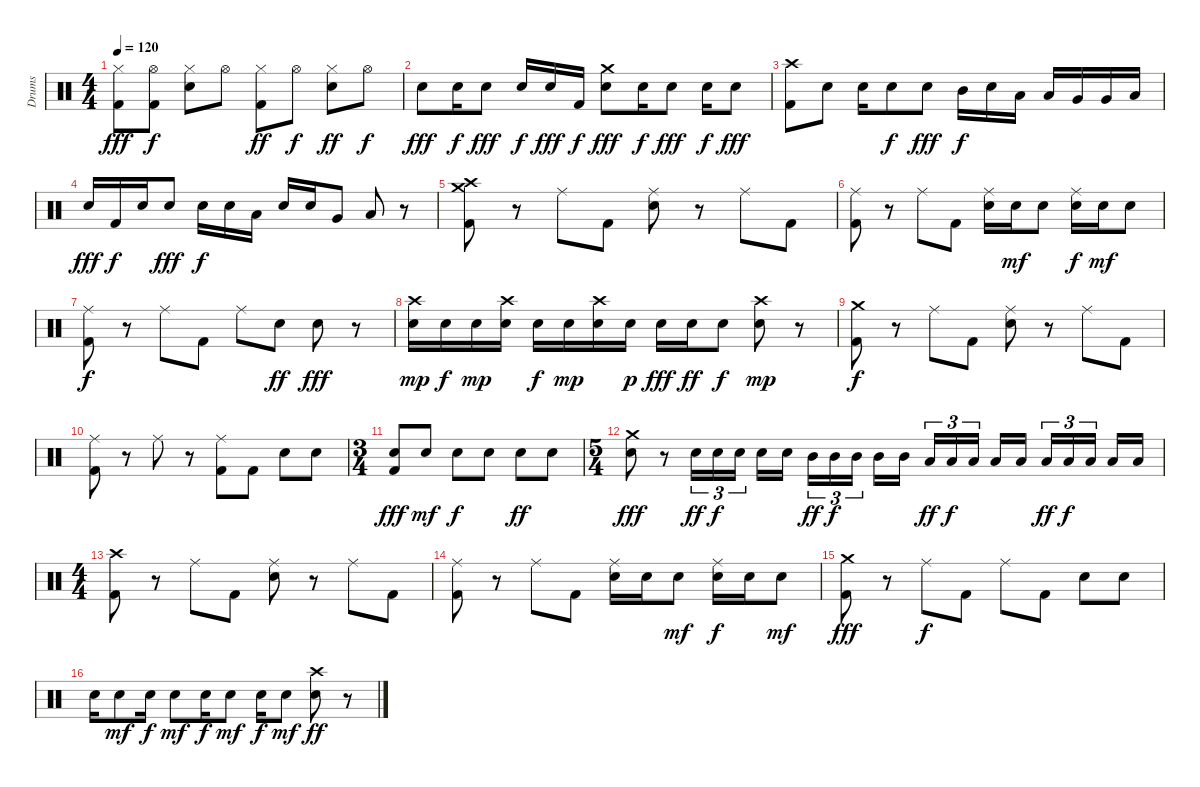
\track ("Drums" "Drums") {instrument percussion}
\staff {score}
\articulation defaults
\ts (4 4)
\tempo 120
\clef neutral
\ks c
("Kick (hit) 2" "Hi-Hat (closed)").8{dy fff} ("Kick (hit) 2" "Hi-Hat (open)").8{dy f} ("Snare (hit) 2" "Hi-Hat (closed)").8 "Hi-Hat (open)".8 ("Kick (hit) 2" "Hi-Hat (closed)").8{dy ff} "Hi-Hat (open)".8{dy f} ("Snare (hit) 2" "Hi-Hat (closed)").8{dy ff} "Hi-Hat (open)".8{dy f} |
"Snare (hit) 2".8{dy fff} "Snare (hit) 2".16{dy f} "Snare (hit) 2".8{dy fff} "Snare (hit) 2".16{dy f} "Snare (hit) 2".16{dy fff} "Kick (hit) 2".16{dy f} ("Snare (hit) 2" "Crash medium (hit)").8{dy fff} "Snare (hit) 2".16{dy f} "Snare (hit) 2".8{dy fff} "Snare (hit) 2".16{dy f} "Snare (hit) 2".8{dy fff} |
("Kick (hit) 2" "Crash high (hit)").8 "Snare (hit) 2".8 "Snare (hit) 2".16 "Snare (hit) 2".8{dy f} "Snare (hit) 2".8{dy fff} "Mid Tom (hit)".16{dy f} "Snare (hit) 2".16 "Low Tom (hit)".16 "Low Tom (hit)".16 "Very Low Tom (hit)".16 "Very Low Tom (hit)".16 "Low Floor Tom (hit)".16 |
"Snare (hit) 2".16{dy fff} "Kick (hit) 2".16{dy f} "Snare (hit) 2".16 "Snare (hit) 2".8{dy fff} "Snare (hit) 2".16{dy f} "Snare (hit) 2".16 "Low Tom (hit)".16 "Snare (hit) 2".16 "Snare (hit) 2".16 "Very Low Tom (hit)".8 "Low Floor Tom (hit)".8 r.8 |
("Kick (hit) 2" "Crash high (hit)" "Crash medium (hit)").8 r.8 "Ride (middle)".8 "Kick (hit) 2".8 ("Snare (hit) 2" "Ride (middle)").8 r.8 "Ride (middle)".8 "Kick (hit) 2".8 |
("Kick (hit) 2" "Ride (middle)").8 r.8 "Ride (middle)".8 "Kick (hit) 2".8 ("Snare (hit) 2" "Ride (middle)").16 "Snare (hit) 2".16{dy mf} "Snare (hit) 2".8 ("Snare (hit) 2" "Ride (middle)").16{dy f} "Snare (hit) 2".16{dy mf} "Snare (hit) 2".8 |
("Kick (hit) 2" "Ride (middle)").8{dy f} r.8 "Ride (middle)".8 "Kick (hit) 2".8 "Ride (middle)".8 "Snare (hit) 2".8{dy ff} "Snare (hit) 2".8{dy fff} r.8 |
("Snare (hit) 2" "Crash high (hit)").16{dy mp} "Snare (hit) 2".16{dy f} "Snare (hit) 2".16{dy mp} ("Snare (hit) 2" "Crash high (hit)").16 "Snare (hit) 2".16{dy f} "Snare (hit) 2".16{dy mp} ("Snare (hit) 2" "Crash high (hit)").16 "Snare (hit) 2".16{dy p} "Snare (hit) 2".16{dy fff} "Snare (hit) 2".16{dy ff} "Snare (hit) 2".8{dy f} ("Snare (hit) 2" "Crash high (hit)").8{dy mp} r.8 |
("Kick (hit) 2" "Crash medium (hit)").8{dy f} r.8 "Ride (middle)".8 "Kick (hit) 2".8 ("Snare (hit) 2" "Ride (middle)").8 r.8 "Ride (middle)".8 "Kick (hit) 2".8 |
("Kick (hit) 2" "Ride (middle)").8 r.8 "Ride (middle)".8 r.8 ("Kick (hit) 2" "Ride (middle)").8 "Kick (hit) 2".8 "Snare (hit) 2".8 "Snare (hit) 2".8 |
\ts (3 4)
("Kick (hit) 2" "Snare (hit) 2").8{dy fff} "Snare (hit) 2".8{dy mf} "Snare (hit) 2".8{dy f} "Snare (hit) 2".8 "Snare (hit) 2".8{dy ff} "Snare (hit) 2".8 |
\ts (5 4)
("Snare (hit) 2" "Crash medium (hit)").8{dy fff} r.8 "Snare (hit) 2".16{tu (3 2) dy ff} "Snare (hit) 2".16{tu (3 2) dy f} "Snare (hit) 2".16{tu (3 2)} "Snare (hit) 2".16 "Snare (hit) 2".16 "Mid Tom (hit)".16{tu (3 2) dy ff} "Mid Tom (hit)".16{tu (3 2) dy f} "Mid Tom (hit)".16{tu (3 2)} "Mid Tom (hit)".16 "Mid Tom (hit)".16 "Low Tom (hit)".16{tu (3 2) dy ff} "Low Tom (hit)".16{tu (3 2) dy f} "Low Tom (hit)".16{tu (3 2)} "Low Tom (hit)".16 "Low Tom (hit)".16 "Low Floor Tom (hit)".16{tu (3 2) dy ff} "Low Floor Tom (hit)".16{tu (3 2) dy f} "Low Floor Tom (hit)".16{tu (3 2)} "Low Floor Tom (hit)".16 "Low Floor Tom (hit)".16 |
\ts (4 4)
("Kick (hit) 2" "Crash high (hit)").8 r.8 "Ride (middle)".8 "Kick (hit) 2".8 ("Snare (hit) 2" "Ride (middle)").8 r.8 "Ride (middle)".8 "Kick (hit) 2".8 |
("Kick (hit) 2" "Ride (middle)").8 r.8 "Ride (middle)".8 "Kick (hit) 2".8 ("Snare (hit) 2" "Ride (middle)").16 "Snare (hit) 2".16 "Snare (hit) 2".8{dy mf} ("Snare (hit) 2" "Ride (middle)").16{dy f} "Snare (hit) 2".16 "Snare (hit) 2".8{dy mf} |
("Kick (hit) 2" "Crash medium (hit)").8{dy fff} r.8 "Ride (middle)".8{dy f} "Kick (hit) 2".8 "Ride (middle)".8 "Kick (hit) 2".8 "Snare (hit) 2".8 "Snare (hit) 2".8 |
"Snare (hit) 2".16 "Snare (hit) 2".8{dy mf} "Snare (hit) 2".16{dy f} "Snare (hit) 2".8{dy mf} "Snare (hit) 2".16{dy f} "Snare (hit) 2".8{dy mf} "Snare (hit) 2".16{dy f} "Snare (hit) 2".8{dy mf} ("Snare (hit) 2" "Crash high (hit)").8{dy ff} r.8
